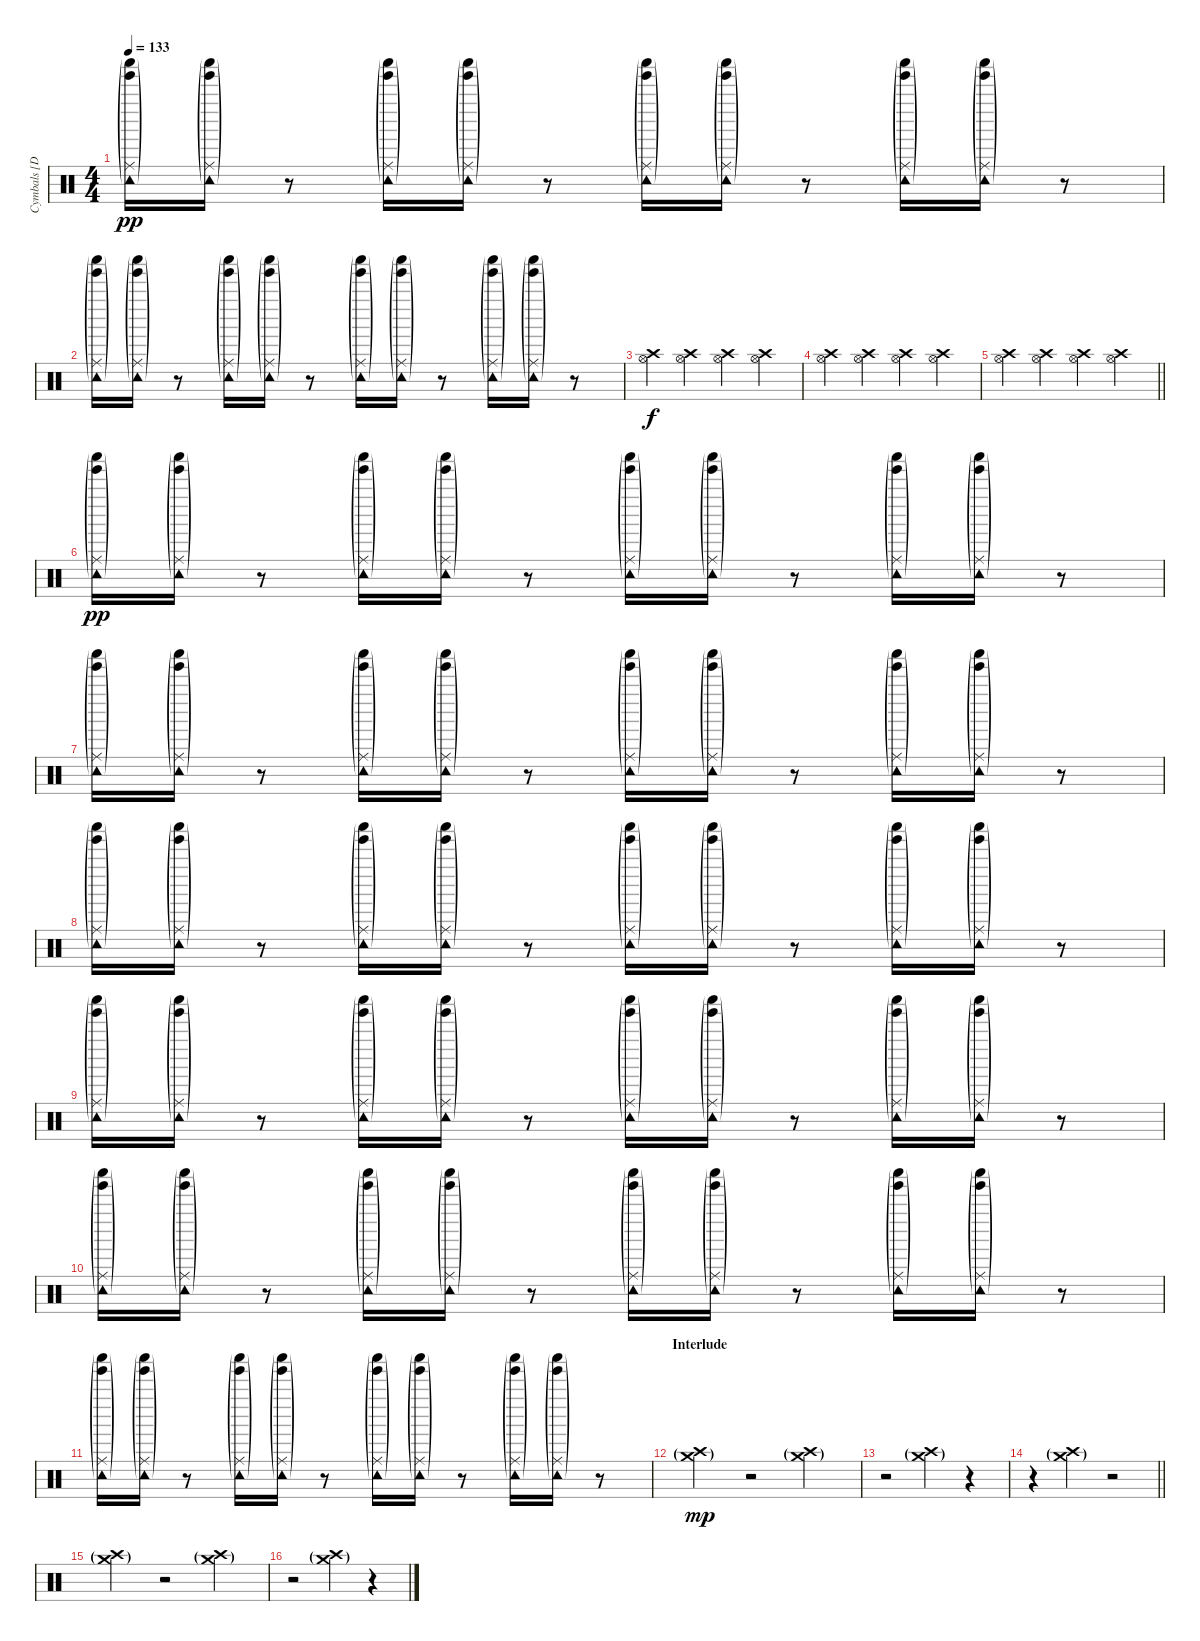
\track ("Cymbals [Dave Grohl]" "Cymbals [D") {instrument percussion}
\staff {score}
\articulation defaults
\ts (4 4)
\tempo 133
\clef neutral
\ks c
("Ride (middle)"{g} "Tambourine (hit)"{g} "Tinkle Bell (hit)"{g} "Shaker (hit)"{g}).16{dy pp volume 6 balance 4} ("Ride (middle)"{g} "Tambourine (hit)"{g} "Tinkle Bell (hit)"{g} "Shaker (hit)"{g}).16 r.8 ("Ride (middle)"{g} "Tambourine (hit)"{g} "Tinkle Bell (hit)"{g} "Shaker (hit)"{g}).16{balance 12} ("Ride (middle)"{g} "Tambourine (hit)"{g} "Tinkle Bell (hit)"{g} "Shaker (hit)"{g}).16 r.8 ("Ride (middle)"{g} "Tambourine (hit)"{g} "Tinkle Bell (hit)"{g} "Shaker (hit)"{g}).16{balance 4} ("Ride (middle)"{g} "Tambourine (hit)"{g} "Tinkle Bell (hit)"{g} "Shaker (hit)"{g}).16 r.8 ("Ride (middle)"{g} "Tambourine (hit)"{g} "Tinkle Bell (hit)"{g} "Shaker (hit)"{g}).16{balance 12} ("Ride (middle)"{g} "Tambourine (hit)"{g} "Tinkle Bell (hit)"{g} "Shaker (hit)"{g}).16 r.8 |
("Ride (middle)"{g} "Tambourine (hit)"{g} "Tinkle Bell (hit)"{g} "Shaker (hit)"{g}).16{volume 6 balance 4} ("Ride (middle)"{g} "Tambourine (hit)"{g} "Tinkle Bell (hit)"{g} "Shaker (hit)"{g}).16 r.8 ("Ride (middle)"{g} "Tambourine (hit)"{g} "Tinkle Bell (hit)"{g} "Shaker (hit)"{g}).16{balance 12} ("Ride (middle)"{g} "Tambourine (hit)"{g} "Tinkle Bell (hit)"{g} "Shaker (hit)"{g}).16 r.8 ("Ride (middle)"{g} "Tambourine (hit)"{g} "Tinkle Bell (hit)"{g} "Shaker (hit)"{g}).16{balance 4} ("Ride (middle)"{g} "Tambourine (hit)"{g} "Tinkle Bell (hit)"{g} "Shaker (hit)"{g}).16 r.8 ("Ride (middle)"{g} "Tambourine (hit)"{g} "Tinkle Bell (hit)"{g} "Shaker (hit)"{g}).16{balance 12} ("Ride (middle)"{g} "Tambourine (hit)"{g} "Tinkle Bell (hit)"{g} "Shaker (hit)"{g}).16 r.8 |
("Hi-Hat (open)" "Crash high (hit)").4{dy f volume 11 balance 8} ("Hi-Hat (open)" "Crash high (hit)").4 ("Hi-Hat (open)" "Crash high (hit)").4 ("Hi-Hat (open)" "Crash high (hit)").4 |
("Hi-Hat (open)" "Crash high (hit)").4 ("Hi-Hat (open)" "Crash high (hit)").4 ("Hi-Hat (open)" "Crash high (hit)").4 ("Hi-Hat (open)" "Crash high (hit)").4 |
\barLineRight lightlight
("Hi-Hat (open)" "Crash high (hit)").4 ("Hi-Hat (open)" "Crash high (hit)").4 ("Hi-Hat (open)" "Crash high (hit)").4 ("Hi-Hat (open)" "Crash high (hit)").4 |
("Ride (middle)"{g} "Tambourine (hit)"{g} "Tinkle Bell (hit)"{g} "Shaker (hit)"{g}).16{dy pp volume 6 balance 4} ("Ride (middle)"{g} "Tambourine (hit)"{g} "Tinkle Bell (hit)"{g} "Shaker (hit)"{g}).16 r.8 ("Ride (middle)"{g} "Tambourine (hit)"{g} "Tinkle Bell (hit)"{g} "Shaker (hit)"{g}).16{balance 12} ("Ride (middle)"{g} "Tambourine (hit)"{g} "Tinkle Bell (hit)"{g} "Shaker (hit)"{g}).16 r.8 ("Ride (middle)"{g} "Tambourine (hit)"{g} "Tinkle Bell (hit)"{g} "Shaker (hit)"{g}).16{balance 4} ("Ride (middle)"{g} "Tambourine (hit)"{g} "Tinkle Bell (hit)"{g} "Shaker (hit)"{g}).16 r.8 ("Ride (middle)"{g} "Tambourine (hit)"{g} "Tinkle Bell (hit)"{g} "Shaker (hit)"{g}).16{balance 12} ("Ride (middle)"{g} "Tambourine (hit)"{g} "Tinkle Bell (hit)"{g} "Shaker (hit)"{g}).16 r.8 |
("Ride (middle)"{g} "Tambourine (hit)"{g} "Tinkle Bell (hit)"{g} "Shaker (hit)"{g}).16{volume 6 balance 4} ("Ride (middle)"{g} "Tambourine (hit)"{g} "Tinkle Bell (hit)"{g} "Shaker (hit)"{g}).16 r.8 ("Ride (middle)"{g} "Tambourine (hit)"{g} "Tinkle Bell (hit)"{g} "Shaker (hit)"{g}).16{balance 12} ("Ride (middle)"{g} "Tambourine (hit)"{g} "Tinkle Bell (hit)"{g} "Shaker (hit)"{g}).16 r.8 ("Ride (middle)"{g} "Tambourine (hit)"{g} "Tinkle Bell (hit)"{g} "Shaker (hit)"{g}).16{balance 4} ("Ride (middle)"{g} "Tambourine (hit)"{g} "Tinkle Bell (hit)"{g} "Shaker (hit)"{g}).16 r.8 ("Ride (middle)"{g} "Tambourine (hit)"{g} "Tinkle Bell (hit)"{g} "Shaker (hit)"{g}).16{balance 12} ("Ride (middle)"{g} "Tambourine (hit)"{g} "Tinkle Bell (hit)"{g} "Shaker (hit)"{g}).16 r.8 |
("Ride (middle)"{g} "Tambourine (hit)"{g} "Tinkle Bell (hit)"{g} "Shaker (hit)"{g}).16{volume 6 balance 4} ("Ride (middle)"{g} "Tambourine (hit)"{g} "Tinkle Bell (hit)"{g} "Shaker (hit)"{g}).16 r.8 ("Ride (middle)"{g} "Tambourine (hit)"{g} "Tinkle Bell (hit)"{g} "Shaker (hit)"{g}).16{balance 12} ("Ride (middle)"{g} "Tambourine (hit)"{g} "Tinkle Bell (hit)"{g} "Shaker (hit)"{g}).16 r.8 ("Ride (middle)"{g} "Tambourine (hit)"{g} "Tinkle Bell (hit)"{g} "Shaker (hit)"{g}).16{balance 4} ("Ride (middle)"{g} "Tambourine (hit)"{g} "Tinkle Bell (hit)"{g} "Shaker (hit)"{g}).16 r.8 ("Ride (middle)"{g} "Tambourine (hit)"{g} "Tinkle Bell (hit)"{g} "Shaker (hit)"{g}).16{balance 12} ("Ride (middle)"{g} "Tambourine (hit)"{g} "Tinkle Bell (hit)"{g} "Shaker (hit)"{g}).16 r.8 |
("Ride (middle)"{g} "Tambourine (hit)"{g} "Tinkle Bell (hit)"{g} "Shaker (hit)"{g}).16{volume 6 balance 4} ("Ride (middle)"{g} "Tambourine (hit)"{g} "Tinkle Bell (hit)"{g} "Shaker (hit)"{g}).16 r.8 ("Ride (middle)"{g} "Tambourine (hit)"{g} "Tinkle Bell (hit)"{g} "Shaker (hit)"{g}).16{balance 12} ("Ride (middle)"{g} "Tambourine (hit)"{g} "Tinkle Bell (hit)"{g} "Shaker (hit)"{g}).16 r.8 ("Ride (middle)"{g} "Tambourine (hit)"{g} "Tinkle Bell (hit)"{g} "Shaker (hit)"{g}).16{balance 4} ("Ride (middle)"{g} "Tambourine (hit)"{g} "Tinkle Bell (hit)"{g} "Shaker (hit)"{g}).16 r.8 ("Ride (middle)"{g} "Tambourine (hit)"{g} "Tinkle Bell (hit)"{g} "Shaker (hit)"{g}).16{balance 12} ("Ride (middle)"{g} "Tambourine (hit)"{g} "Tinkle Bell (hit)"{g} "Shaker (hit)"{g}).16 r.8 |
("Ride (middle)"{g} "Tambourine (hit)"{g} "Tinkle Bell (hit)"{g} "Shaker (hit)"{g}).16{volume 6 balance 4} ("Ride (middle)"{g} "Tambourine (hit)"{g} "Tinkle Bell (hit)"{g} "Shaker (hit)"{g}).16 r.8 ("Ride (middle)"{g} "Tambourine (hit)"{g} "Tinkle Bell (hit)"{g} "Shaker (hit)"{g}).16{balance 12} ("Ride (middle)"{g} "Tambourine (hit)"{g} "Tinkle Bell (hit)"{g} "Shaker (hit)"{g}).16 r.8 ("Ride (middle)"{g} "Tambourine (hit)"{g} "Tinkle Bell (hit)"{g} "Shaker (hit)"{g}).16{balance 4} ("Ride (middle)"{g} "Tambourine (hit)"{g} "Tinkle Bell (hit)"{g} "Shaker (hit)"{g}).16 r.8 ("Ride (middle)"{g} "Tambourine (hit)"{g} "Tinkle Bell (hit)"{g} "Shaker (hit)"{g}).16{balance 12} ("Ride (middle)"{g} "Tambourine (hit)"{g} "Tinkle Bell (hit)"{g} "Shaker (hit)"{g}).16 r.8 |
("Ride (middle)"{g} "Tambourine (hit)"{g} "Tinkle Bell (hit)"{g} "Shaker (hit)"{g}).16{volume 6 balance 4} ("Ride (middle)"{g} "Tambourine (hit)"{g} "Tinkle Bell (hit)"{g} "Shaker (hit)"{g}).16 r.8 ("Ride (middle)"{g} "Tambourine (hit)"{g} "Tinkle Bell (hit)"{g} "Shaker (hit)"{g}).16{balance 12} ("Ride (middle)"{g} "Tambourine (hit)"{g} "Tinkle Bell (hit)"{g} "Shaker (hit)"{g}).16 r.8 ("Ride (middle)"{g} "Tambourine (hit)"{g} "Tinkle Bell (hit)"{g} "Shaker (hit)"{g}).16{balance 4} ("Ride (middle)"{g} "Tambourine (hit)"{g} "Tinkle Bell (hit)"{g} "Shaker (hit)"{g}).16 r.8 ("Ride (middle)"{g} "Tambourine (hit)"{g} "Tinkle Bell (hit)"{g} "Shaker (hit)"{g}).16{balance 12} ("Ride (middle)"{g} "Tambourine (hit)"{g} "Tinkle Bell (hit)"{g} "Shaker (hit)"{g}).16 r.8 |
\section ("" "Interlude")
("Crash high (hit)"{g} "Crash medium (hit)"{g}).4{dy mp volume 14 balance 8} r.2{volume 0} ("Crash high (hit)"{g} "Crash medium (hit)"{g}).4{volume 14 balance 8} |
r.2{volume 0} ("Crash high (hit)"{g} "Crash medium (hit)"{g}).4{volume 14 balance 8} r.4{volume 0} |
\barLineRight lightlight
r.4 ("Crash high (hit)"{g} "Crash medium (hit)"{g}).4{volume 14 balance 8} r.2{volume 0} |
("Crash high (hit)"{g} "Crash medium (hit)"{g}).4{volume 14 balance 8} r.2{volume 0} ("Crash high (hit)"{g} "Crash medium (hit)"{g}).4{volume 14 balance 8} |
r.2{volume 0} ("Crash high (hit)"{g} "Crash medium (hit)"{g}).4{volume 14 balance 8} r.4{volume 0}
